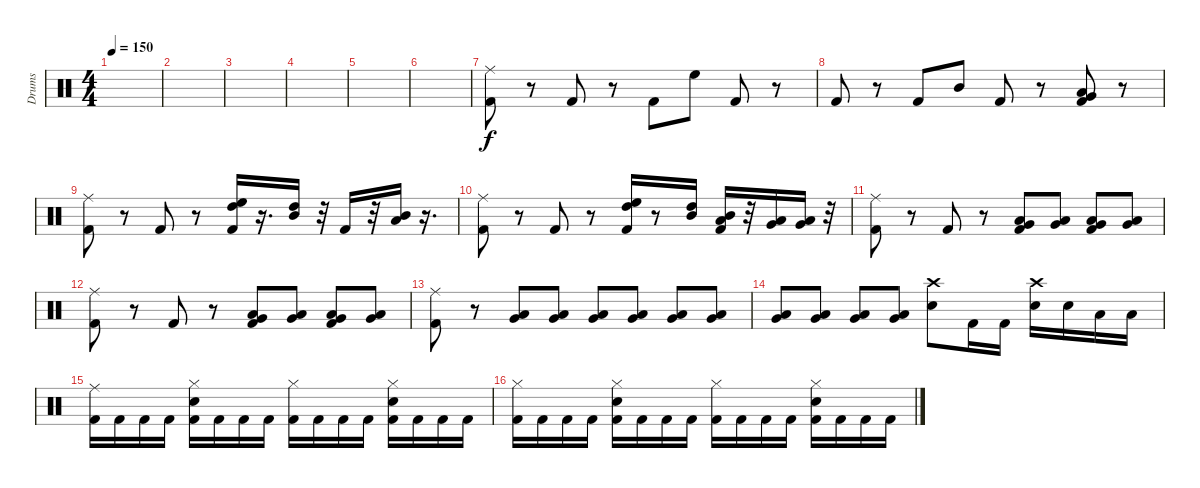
\track ("Drums" "Drums") {instrument percussion}
\staff {score}
\articulation defaults
\ts (4 4)
\tempo 150
\clef neutral
\ks c
|
|
|
|
|
|
("Ride (middle)" "Kick (hit) 2").8 r.8 "Kick (hit) 2".8 r.8 "Kick (hit) 2".8 "High Floor Tom (hit)".8 "Kick (hit) 2".8 r.8 |
"Kick (hit) 2".8 r.8 "Kick (hit) 2".8 "Mid Tom (hit)".8 "Kick (hit) 2".8 r.8 ("Low Tom (hit)" "Very Low Tom (hit)" "Kick (hit) 2").8 r.8 |
("Ride (middle)" "Kick (hit) 2").8 r.8 "Kick (hit) 2".8 r.8 ("High Floor Tom (hit)" "High Tom (hit)" "Kick (hit) 2").16 r.16{d} ("Mid Tom (hit)" "High Tom (hit)").16 r.32 "Kick (hit) 2".16 r.32 ("Low Tom (hit)" "Mid Tom (hit)").16 r.16{d} |
("Ride (middle)" "Kick (hit) 2").8 r.8 "Kick (hit) 2".8 r.8 ("High Floor Tom (hit)" "High Tom (hit)" "Kick (hit) 2").16 r.8 ("High Tom (hit)" "Mid Tom (hit)").16 ("Low Tom (hit)" "Mid Tom (hit)" "Kick (hit) 2").16 r.32 ("Low Tom (hit)" "Very Low Tom (hit)").16 ("Low Floor Tom (hit)" "Very Low Tom (hit)").16 r.32 |
("Ride (middle)" "Kick (hit) 2").8 r.8 "Kick (hit) 2".8 r.8 ("Very Low Tom (hit)" "Low Floor Tom (hit)" "Kick (hit) 2").8 ("Very Low Tom (hit)" "Low Floor Tom (hit)").8 ("Very Low Tom (hit)" "Low Floor Tom (hit)" "Kick (hit) 2").8 ("Very Low Tom (hit)" "Low Floor Tom (hit)").8 |
("Ride (middle)" "Kick (hit) 2").8 r.8 "Kick (hit) 2".8 r.8 ("Very Low Tom (hit)" "Low Floor Tom (hit)" "Kick (hit) 2").8 ("Very Low Tom (hit)" "Low Floor Tom (hit)").8 ("Very Low Tom (hit)" "Low Floor Tom (hit)" "Kick (hit) 2").8 ("Very Low Tom (hit)" "Low Floor Tom (hit)").8 |
("Ride (middle)" "Kick (hit) 2").8 r.8 ("Very Low Tom (hit)" "Low Floor Tom (hit)").8 ("Very Low Tom (hit)" "Low Floor Tom (hit)").8 ("Very Low Tom (hit)" "Low Floor Tom (hit)").8 ("Very Low Tom (hit)" "Low Floor Tom (hit)").8 ("Very Low Tom (hit)" "Low Floor Tom (hit)").8 ("Very Low Tom (hit)" "Low Floor Tom (hit)").8 |
("Very Low Tom (hit)" "Low Floor Tom (hit)").8 ("Very Low Tom (hit)" "Low Floor Tom (hit)").8 ("Very Low Tom (hit)" "Low Floor Tom (hit)").8 ("Very Low Tom (hit)" "Low Floor Tom (hit)").8 ("Crash high (hit)" "Electric Snare (hit)").8 "Kick (hit) 2".16 "Kick (hit) 2".16 ("Crash high (hit)" "Electric Snare (hit)").16 "Electric Snare (hit)".16 "Low Tom (hit)".16 "Low Floor Tom (hit)".16 |
("Ride (middle)" "Kick (hit) 2").16 "Kick (hit) 2".16 "Kick (hit) 2".16 "Kick (hit) 2".16 ("Hi-Hat (closed)" "Electric Snare (hit)" "Kick (hit) 2").16 "Kick (hit) 2".16 "Kick (hit) 2".16 "Kick (hit) 2".16 ("Hi-Hat (closed)" "Kick (hit) 2").16 "Kick (hit) 2".16 "Kick (hit) 2".16 "Kick (hit) 2".16 ("Hi-Hat (closed)" "Electric Snare (hit)" "Kick (hit) 2").16 "Kick (hit) 2".16 "Kick (hit) 2".16 "Kick (hit) 2".16 |
("Hi-Hat (closed)" "Kick (hit) 2").16 "Kick (hit) 2".16 "Kick (hit) 2".16 "Kick (hit) 2".16 ("Hi-Hat (closed)" "Electric Snare (hit)" "Kick (hit) 2").16 "Kick (hit) 2".16 "Kick (hit) 2".16 "Kick (hit) 2".16 ("Hi-Hat (closed)" "Kick (hit) 2").16 "Kick (hit) 2".16 "Kick (hit) 2".16 "Kick (hit) 2".16 ("Hi-Hat (closed)" "Electric Snare (hit)" "Kick (hit) 2").16 "Kick (hit) 2".16 "Kick (hit) 2".16 "Kick (hit) 2".16
